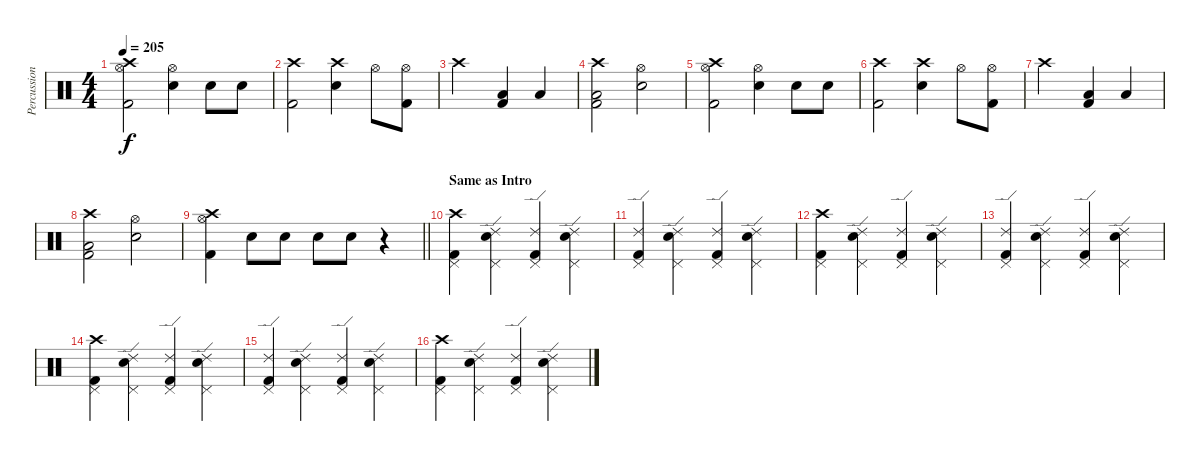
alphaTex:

\track ("Percussion" "Percussion") {instrument percussion}
\staff {score}
\articulation defaults
\ts (4 4)
\tempo 205
\clef neutral
\ks c
("Crash high (hit)" "Hi-Hat (open)" "Kick (hit) 2").2{dy f} ("Electric Snare (hit)" "Hi-Hat (open)").4 "Electric Snare (hit)".8 "Electric Snare (hit)".8 |
("Crash high (hit)" "Kick (hit) 2").2 ("Crash high (hit)" "Electric Snare (hit)").4 "Hi-Hat (open)".8 ("Hi-Hat (open)" "Kick (hit) 2").8 |
"Crash high (hit)".2 ("Low Floor Tom (hit)" "Kick (hit) 2").4 "Low Floor Tom (hit)".4 |
("Crash high (hit)" "Low Floor Tom (hit)" "Kick (hit) 2").2 ("Electric Snare (hit)" "Hi-Hat (open)").2 |
("Crash high (hit)" "Hi-Hat (open)" "Kick (hit) 2").2 ("Electric Snare (hit)" "Hi-Hat (open)").4 "Electric Snare (hit)".8 "Electric Snare (hit)".8 |
("Crash high (hit)" "Kick (hit) 2").2 ("Crash high (hit)" "Electric Snare (hit)").4 "Hi-Hat (open)".8 ("Hi-Hat (open)" "Kick (hit) 2").8 |
"Crash high (hit)".2 ("Low Floor Tom (hit)" "Kick (hit) 2").4 "Low Floor Tom (hit)".4 |
("Crash high (hit)" "Low Floor Tom (hit)" "Kick (hit) 2").2 ("Electric Snare (hit)" "Hi-Hat (open)").2 |
\barLineRight lightlight
("Crash high (hit)" "Hi-Hat (open)" "Kick (hit) 2").4 "Electric Snare (hit)".8 "Electric Snare (hit)".8 "Electric Snare (hit)".8 "Electric Snare (hit)".8 r.4 |
\section ("" "Same as Intro")
("Crash high (hit)" "Pedal Hi-Hat (hit)" "Kick (hit) 2").4 ("Ride (edge) 2" "Electric Snare (hit)" "Pedal Hi-Hat (hit)").4 ("Ride (edge) 2" "Pedal Hi-Hat (hit)" "Kick (hit) 2").4 ("Ride (edge) 2" "Electric Snare (hit)" "Pedal Hi-Hat (hit)").4 |
("Ride (edge) 2" "Pedal Hi-Hat (hit)" "Kick (hit) 2").4 ("Ride (edge) 2" "Electric Snare (hit)" "Pedal Hi-Hat (hit)").4 ("Ride (edge) 2" "Pedal Hi-Hat (hit)" "Kick (hit) 2").4 ("Ride (edge) 2" "Electric Snare (hit)" "Pedal Hi-Hat (hit)").4 |
("Crash high (hit)" "Pedal Hi-Hat (hit)" "Kick (hit) 2").4 ("Ride (edge) 2" "Electric Snare (hit)" "Pedal Hi-Hat (hit)").4 ("Ride (edge) 2" "Pedal Hi-Hat (hit)" "Kick (hit) 2").4 ("Ride (edge) 2" "Electric Snare (hit)" "Pedal Hi-Hat (hit)").4 |
("Ride (edge) 2" "Pedal Hi-Hat (hit)" "Kick (hit) 2").4 ("Ride (edge) 2" "Electric Snare (hit)" "Pedal Hi-Hat (hit)").4 ("Ride (edge) 2" "Pedal Hi-Hat (hit)" "Kick (hit) 2").4 ("Ride (edge) 2" "Electric Snare (hit)" "Pedal Hi-Hat (hit)").4 |
("Crash high (hit)" "Pedal Hi-Hat (hit)" "Kick (hit) 2").4 ("Ride (edge) 2" "Electric Snare (hit)" "Pedal Hi-Hat (hit)").4 ("Ride (edge) 2" "Pedal Hi-Hat (hit)" "Kick (hit) 2").4 ("Ride (edge) 2" "Electric Snare (hit)" "Pedal Hi-Hat (hit)").4 |
("Ride (edge) 2" "Pedal Hi-Hat (hit)" "Kick (hit) 2").4 ("Ride (edge) 2" "Electric Snare (hit)" "Pedal Hi-Hat (hit)").4 ("Ride (edge) 2" "Pedal Hi-Hat (hit)" "Kick (hit) 2").4 ("Ride (edge) 2" "Electric Snare (hit)" "Pedal Hi-Hat (hit)").4 |
("Crash high (hit)" "Pedal Hi-Hat (hit)" "Kick (hit) 2").4 ("Ride (edge) 2" "Electric Snare (hit)" "Pedal Hi-Hat (hit)").4 ("Ride (edge) 2" "Pedal Hi-Hat (hit)" "Kick (hit) 2").4 ("Ride (edge) 2" "Electric Snare (hit)" "Pedal Hi-Hat (hit)").4
